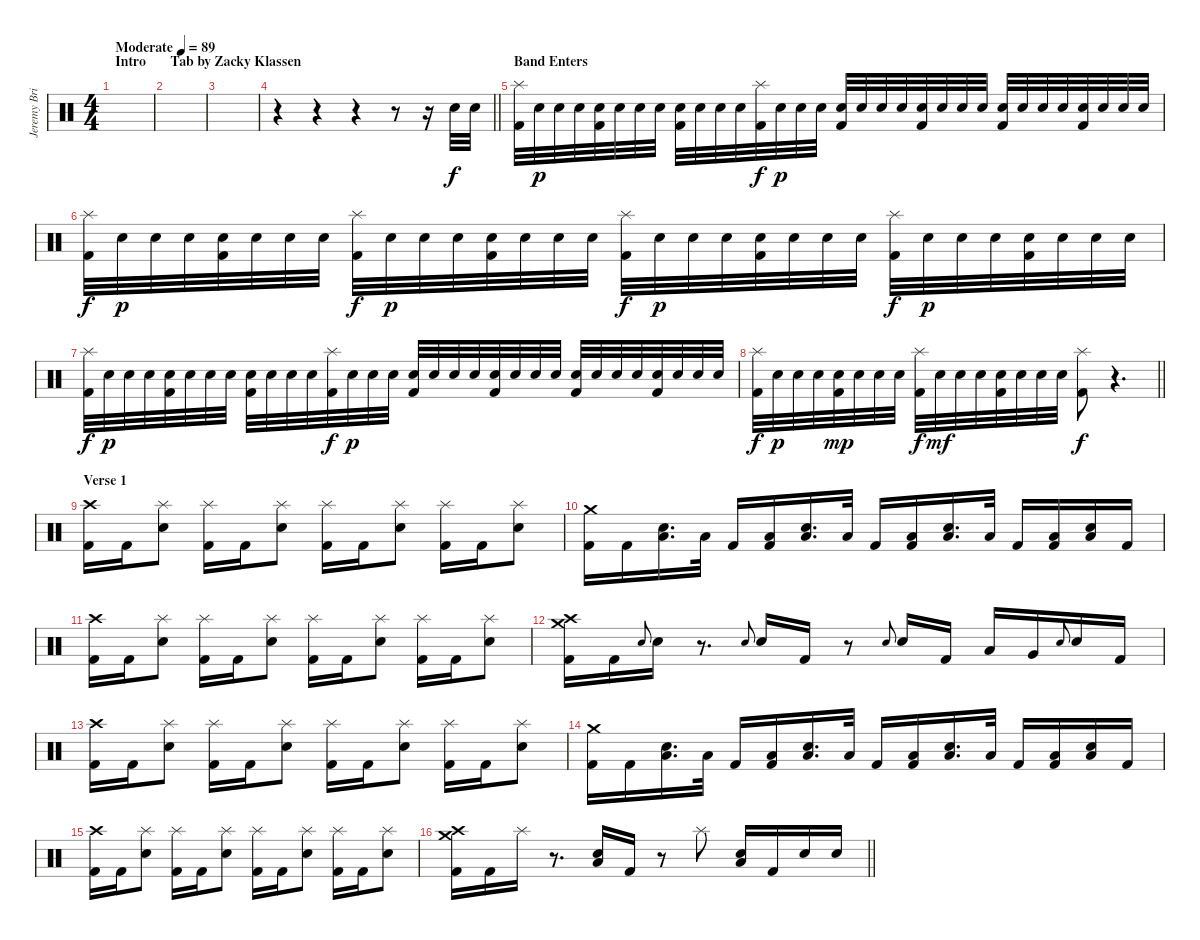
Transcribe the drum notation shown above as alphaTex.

\track ("Jeremy Brian [Drums]" "Jeremy Bri") {instrument percussion}
\staff {score}
\articulation defaults
\ts (4 4)
\section ("" "Intro       Tab by Zacky Klassen")
\tempo (89 "Moderate")
\clef neutral
\ks c
|
|
|
\barLineRight lightlight
r.4 r.4 r.4 r.8 r.16 "Electric Snare (hit)".32 "Electric Snare (hit)".32 |
\section ("" "Band Enters")
("Splash (hit)" "Kick (hit) 2").32 "Electric Snare (hit)".32{dy p} "Electric Snare (hit)".32 "Electric Snare (hit)".32 ("Electric Snare (hit)" "Kick (hit) 2").32 "Electric Snare (hit)".32 "Electric Snare (hit)".32 "Electric Snare (hit)".32 ("Electric Snare (hit)" "Kick (hit) 2").32 "Electric Snare (hit)".32 "Electric Snare (hit)".32 "Electric Snare (hit)".32 ("Splash (hit)" "Kick (hit) 2").32{dy f} "Electric Snare (hit)".32{dy p} "Electric Snare (hit)".32 "Electric Snare (hit)".32 ("Electric Snare (hit)" "Kick (hit) 2").32 "Electric Snare (hit)".32 "Electric Snare (hit)".32 "Electric Snare (hit)".32 ("Electric Snare (hit)" "Kick (hit) 2").32 "Electric Snare (hit)".32 "Electric Snare (hit)".32 "Electric Snare (hit)".32 ("Electric Snare (hit)" "Kick (hit) 2").32 "Electric Snare (hit)".32 "Electric Snare (hit)".32 "Electric Snare (hit)".32 ("Electric Snare (hit)" "Kick (hit) 2").32 "Electric Snare (hit)".32 "Electric Snare (hit)".32 "Electric Snare (hit)".32 |
("Splash (hit)" "Kick (hit) 2").32{dy f} "Electric Snare (hit)".32{dy p} "Electric Snare (hit)".32 "Electric Snare (hit)".32 ("Electric Snare (hit)" "Kick (hit) 2").32 "Electric Snare (hit)".32 "Electric Snare (hit)".32 "Electric Snare (hit)".32 ("Splash (hit)" "Kick (hit) 2").32{dy f} "Electric Snare (hit)".32{dy p} "Electric Snare (hit)".32 "Electric Snare (hit)".32 ("Electric Snare (hit)" "Kick (hit) 2").32 "Electric Snare (hit)".32 "Electric Snare (hit)".32 "Electric Snare (hit)".32 ("Splash (hit)" "Kick (hit) 2").32{dy f} "Electric Snare (hit)".32{dy p} "Electric Snare (hit)".32 "Electric Snare (hit)".32 ("Electric Snare (hit)" "Kick (hit) 2").32 "Electric Snare (hit)".32 "Electric Snare (hit)".32 "Electric Snare (hit)".32 ("Splash (hit)" "Kick (hit) 2").32{dy f} "Electric Snare (hit)".32{dy p} "Electric Snare (hit)".32 "Electric Snare (hit)".32 ("Electric Snare (hit)" "Kick (hit) 2").32 "Electric Snare (hit)".32 "Electric Snare (hit)".32 "Electric Snare (hit)".32 |
("Splash (hit)" "Kick (hit) 2").32{dy f} "Electric Snare (hit)".32{dy p} "Electric Snare (hit)".32 "Electric Snare (hit)".32 ("Electric Snare (hit)" "Kick (hit) 2").32 "Electric Snare (hit)".32 "Electric Snare (hit)".32 "Electric Snare (hit)".32 ("Electric Snare (hit)" "Kick (hit) 2").32 "Electric Snare (hit)".32 "Electric Snare (hit)".32 "Electric Snare (hit)".32 ("Splash (hit)" "Kick (hit) 2").32{dy f} "Electric Snare (hit)".32{dy p} "Electric Snare (hit)".32 "Electric Snare (hit)".32 ("Electric Snare (hit)" "Kick (hit) 2").32 "Electric Snare (hit)".32 "Electric Snare (hit)".32 "Electric Snare (hit)".32 ("Electric Snare (hit)" "Kick (hit) 2").32 "Electric Snare (hit)".32 "Electric Snare (hit)".32 "Electric Snare (hit)".32 ("Electric Snare (hit)" "Kick (hit) 2").32 "Electric Snare (hit)".32 "Electric Snare (hit)".32 "Electric Snare (hit)".32 ("Electric Snare (hit)" "Kick (hit) 2").32 "Electric Snare (hit)".32 "Electric Snare (hit)".32 "Electric Snare (hit)".32 |
\barLineRight lightlight
("Splash (hit)" "Kick (hit) 2").32{dy f} "Electric Snare (hit)".32{dy p} "Electric Snare (hit)".32 "Electric Snare (hit)".32 ("Electric Snare (hit)" "Kick (hit) 2").32{dy mp} "Electric Snare (hit)".32 "Electric Snare (hit)".32 "Electric Snare (hit)".32 ("Splash (hit)" "Kick (hit) 2").32{dy f} "Electric Snare (hit)".32{dy mf} "Electric Snare (hit)".32 "Electric Snare (hit)".32 ("Electric Snare (hit)" "Kick (hit) 2").32 "Electric Snare (hit)".32 "Electric Snare (hit)".32 "Electric Snare (hit)".32 ("Splash (hit)" "Kick (hit) 2").8{dy f} r.4{d volume 0} |
\section ("" "Verse 1")
("Crash high (hit)" "Kick (hit) 2").16{volume 16} "Kick (hit) 2".16 ("Splash (hit)" "Electric Snare (hit)").8 ("Splash (hit)" "Kick (hit) 2").16 "Kick (hit) 2".16 ("Splash (hit)" "Electric Snare (hit)").8 ("Splash (hit)" "Kick (hit) 2").16 "Kick (hit) 2".16 ("Splash (hit)" "Electric Snare (hit)").8 ("Splash (hit)" "Kick (hit) 2").16 "Kick (hit) 2".16 ("Splash (hit)" "Electric Snare (hit)").8 |
("Crash medium (hit)" "Kick (hit) 2").16 "Kick (hit) 2".16 ("Low Floor Tom (hit)" "Electric Snare (hit)").16{d} "Low Tom (hit)".32 "Kick (hit) 2".16 ("Low Floor Tom (hit)" "Kick (hit) 2").16 ("Low Floor Tom (hit)" "Electric Snare (hit)").16{d} "Low Tom (hit)".32 "Kick (hit) 2".16 ("Low Floor Tom (hit)" "Kick (hit) 2").16 ("Low Floor Tom (hit)" "Electric Snare (hit)").16{d} "Low Tom (hit)".32 "Kick (hit) 2".16 ("Low Floor Tom (hit)" "Kick (hit) 2").16 ("Low Floor Tom (hit)" "Electric Snare (hit)").16 "Kick (hit) 2".16 |
("Crash high (hit)" "Kick (hit) 2").16 "Kick (hit) 2".16 ("Splash (hit)" "Electric Snare (hit)").8 ("Splash (hit)" "Kick (hit) 2").16 "Kick (hit) 2".16 ("Splash (hit)" "Electric Snare (hit)").8 ("Splash (hit)" "Kick (hit) 2").16 "Kick (hit) 2".16 ("Splash (hit)" "Electric Snare (hit)").8 ("Splash (hit)" "Kick (hit) 2").16 "Kick (hit) 2".16 ("Splash (hit)" "Electric Snare (hit)").8 |
("Crash high (hit)" "Crash medium (hit)" "Kick (hit) 2").16 "Kick (hit) 2".16 "Electric Snare (hit)".8{gr onbeat} "Electric Snare (hit)".16 r.8{d} "Electric Snare (hit)".8{gr onbeat} "Electric Snare (hit)".16 "Kick (hit) 2".16 r.8 "Electric Snare (hit)".8{gr onbeat} "Electric Snare (hit)".16 "Kick (hit) 2".16 "Low Floor Tom (hit)".16 "Very Low Tom (hit)".16 "Electric Snare (hit)".8{gr onbeat} "Electric Snare (hit)".16 "Kick (hit) 2".16 |
("Crash high (hit)" "Kick (hit) 2").16 "Kick (hit) 2".16 ("Splash (hit)" "Electric Snare (hit)").8 ("Splash (hit)" "Kick (hit) 2").16 "Kick (hit) 2".16 ("Splash (hit)" "Electric Snare (hit)").8 ("Splash (hit)" "Kick (hit) 2").16 "Kick (hit) 2".16 ("Splash (hit)" "Electric Snare (hit)").8 ("Splash (hit)" "Kick (hit) 2").16 "Kick (hit) 2".16 ("Splash (hit)" "Electric Snare (hit)").8 |
("Crash medium (hit)" "Kick (hit) 2").16 "Kick (hit) 2".16 ("Low Floor Tom (hit)" "Electric Snare (hit)").16{d} "Low Tom (hit)".32 "Kick (hit) 2".16 ("Low Floor Tom (hit)" "Kick (hit) 2").16 ("Low Floor Tom (hit)" "Electric Snare (hit)").16{d} "Low Tom (hit)".32 "Kick (hit) 2".16 ("Low Floor Tom (hit)" "Kick (hit) 2").16 ("Low Floor Tom (hit)" "Electric Snare (hit)").16{d} "Low Tom (hit)".32 "Kick (hit) 2".16 ("Low Floor Tom (hit)" "Kick (hit) 2").16 ("Low Floor Tom (hit)" "Electric Snare (hit)").16 "Kick (hit) 2".16 |
("Crash high (hit)" "Kick (hit) 2").16 "Kick (hit) 2".16 ("Splash (hit)" "Electric Snare (hit)").8 ("Splash (hit)" "Kick (hit) 2").16 "Kick (hit) 2".16 ("Splash (hit)" "Electric Snare (hit)").8 ("Splash (hit)" "Kick (hit) 2").16 "Kick (hit) 2".16 ("Splash (hit)" "Electric Snare (hit)").8 ("Splash (hit)" "Kick (hit) 2").16 "Kick (hit) 2".16 ("Splash (hit)" "Electric Snare (hit)").8 |
\barLineRight lightlight
("Crash high (hit)" "Crash medium (hit)" "Kick (hit) 2").16 "Kick (hit) 2".16 "Splash (hit)".16 r.8{d} ("Low Floor Tom (hit)" "Electric Snare (hit)").16 "Kick (hit) 2".16 r.8 "Splash (hit)".8 ("Low Floor Tom (hit)" "Electric Snare (hit)").16 "Kick (hit) 2".16 "Electric Snare (hit)".16 "Electric Snare (hit)".16
